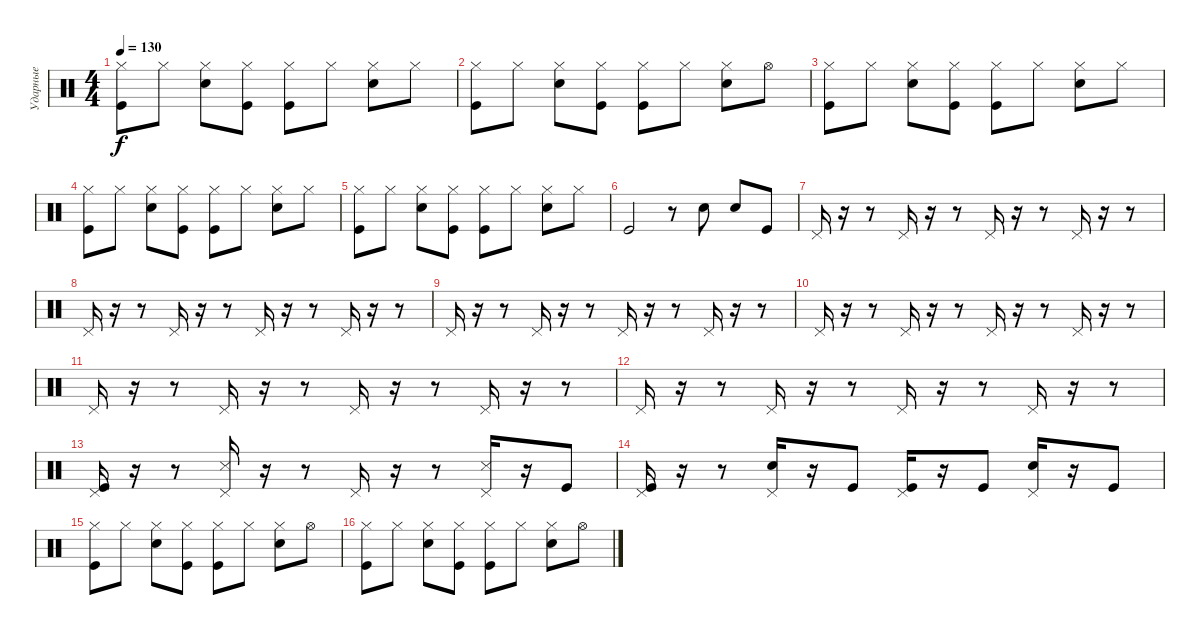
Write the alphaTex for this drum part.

\track ("Ударные" "Ударные") {instrument percussion}
\staff {score}
\articulation defaults
\ts (4 4)
\tempo 130
\clef neutral
\ks c
("Hi-Hat (closed)" "Kick (hit)").8{dy f} "Hi-Hat (closed)".8 ("Hi-Hat (closed)" "Snare (hit) 2").8 ("Hi-Hat (closed)" "Kick (hit)").8 ("Hi-Hat (closed)" "Kick (hit)").8 "Hi-Hat (closed)".8 ("Hi-Hat (closed)" "Snare (hit) 2").8 "Hi-Hat (closed)".8 |
("Hi-Hat (closed)" "Kick (hit)").8 "Hi-Hat (closed)".8 ("Hi-Hat (closed)" "Snare (hit) 2").8 ("Hi-Hat (closed)" "Kick (hit)").8 ("Hi-Hat (closed)" "Kick (hit)").8 "Hi-Hat (closed)".8 ("Hi-Hat (closed)" "Snare (hit) 2").8 "Hi-Hat (open)".8 |
("Hi-Hat (closed)" "Kick (hit)").8 "Hi-Hat (closed)".8 ("Hi-Hat (closed)" "Snare (hit) 2").8 ("Hi-Hat (closed)" "Kick (hit)").8 ("Hi-Hat (closed)" "Kick (hit)").8 "Hi-Hat (closed)".8 ("Hi-Hat (closed)" "Snare (hit) 2").8 "Hi-Hat (closed)".8 |
("Hi-Hat (closed)" "Kick (hit)").8 "Hi-Hat (closed)".8 ("Hi-Hat (closed)" "Snare (hit) 2").8 ("Hi-Hat (closed)" "Kick (hit)").8 ("Hi-Hat (closed)" "Kick (hit)").8 "Hi-Hat (closed)".8 ("Hi-Hat (closed)" "Snare (hit) 2").8 "Hi-Hat (closed)".8 |
("Hi-Hat (closed)" "Kick (hit)").8 "Hi-Hat (closed)".8 ("Hi-Hat (closed)" "Snare (hit) 2").8 ("Hi-Hat (closed)" "Kick (hit)").8 ("Hi-Hat (closed)" "Kick (hit)").8 "Hi-Hat (closed)".8 ("Hi-Hat (closed)" "Snare (hit) 2").8 "Hi-Hat (closed)".8 |
"Kick (hit)".2 r.8 "Snare (hit) 2".8 "Snare (hit) 2".8 "Kick (hit)".8 |
"Pedal Hi-Hat (hit)".16 r.16 r.8 "Pedal Hi-Hat (hit)".16 r.16 r.8 "Pedal Hi-Hat (hit)".16 r.16 r.8 "Pedal Hi-Hat (hit)".16 r.16 r.8 |
"Pedal Hi-Hat (hit)".16 r.16 r.8 "Pedal Hi-Hat (hit)".16 r.16 r.8 "Pedal Hi-Hat (hit)".16 r.16 r.8 "Pedal Hi-Hat (hit)".16 r.16 r.8 |
"Pedal Hi-Hat (hit)".16 r.16 r.8 "Pedal Hi-Hat (hit)".16 r.16 r.8 "Pedal Hi-Hat (hit)".16 r.16 r.8 "Pedal Hi-Hat (hit)".16 r.16 r.8 |
"Pedal Hi-Hat (hit)".16 r.16 r.8 "Pedal Hi-Hat (hit)".16 r.16 r.8 "Pedal Hi-Hat (hit)".16 r.16 r.8 "Pedal Hi-Hat (hit)".16 r.16 r.8 |
"Pedal Hi-Hat (hit)".16 r.16 r.8 "Pedal Hi-Hat (hit)".16 r.16 r.8 "Pedal Hi-Hat (hit)".16 r.16 r.8 "Pedal Hi-Hat (hit)".16 r.16 r.8 |
"Pedal Hi-Hat (hit)".16 r.16 r.8 "Pedal Hi-Hat (hit)".16 r.16 r.8 "Pedal Hi-Hat (hit)".16 r.16 r.8 "Pedal Hi-Hat (hit)".16 r.16 r.8 |
("Pedal Hi-Hat (hit)" "Kick (hit)").16 r.16 r.8 ("Pedal Hi-Hat (hit)" "Snare (side stick) 3").16 r.16 r.8 "Pedal Hi-Hat (hit)".16 r.16 r.8 ("Pedal Hi-Hat (hit)" "Snare (side stick) 3").16 r.16 "Kick (hit)".8 |
("Pedal Hi-Hat (hit)" "Kick (hit)").16 r.16 r.8 ("Pedal Hi-Hat (hit)" "Snare (hit) 2").16 r.16 "Kick (hit)".8 ("Pedal Hi-Hat (hit)" "Kick (hit)").16 r.16 "Kick (hit)".8 ("Pedal Hi-Hat (hit)" "Snare (hit) 2").16 r.16 "Kick (hit)".8 |
("Hi-Hat (closed)" "Kick (hit)").8 "Hi-Hat (closed)".8 ("Hi-Hat (closed)" "Snare (hit) 2").8 ("Hi-Hat (closed)" "Kick (hit)").8 ("Hi-Hat (closed)" "Kick (hit)").8 "Hi-Hat (closed)".8 ("Hi-Hat (closed)" "Snare (hit) 2").8 "Hi-Hat (open)".8 |
("Hi-Hat (closed)" "Kick (hit)").8 "Hi-Hat (closed)".8 ("Hi-Hat (closed)" "Snare (hit) 2").8 ("Hi-Hat (closed)" "Kick (hit)").8 ("Hi-Hat (closed)" "Kick (hit)").8 "Hi-Hat (closed)".8 ("Hi-Hat (closed)" "Snare (hit) 2").8 "Hi-Hat (open)".8
